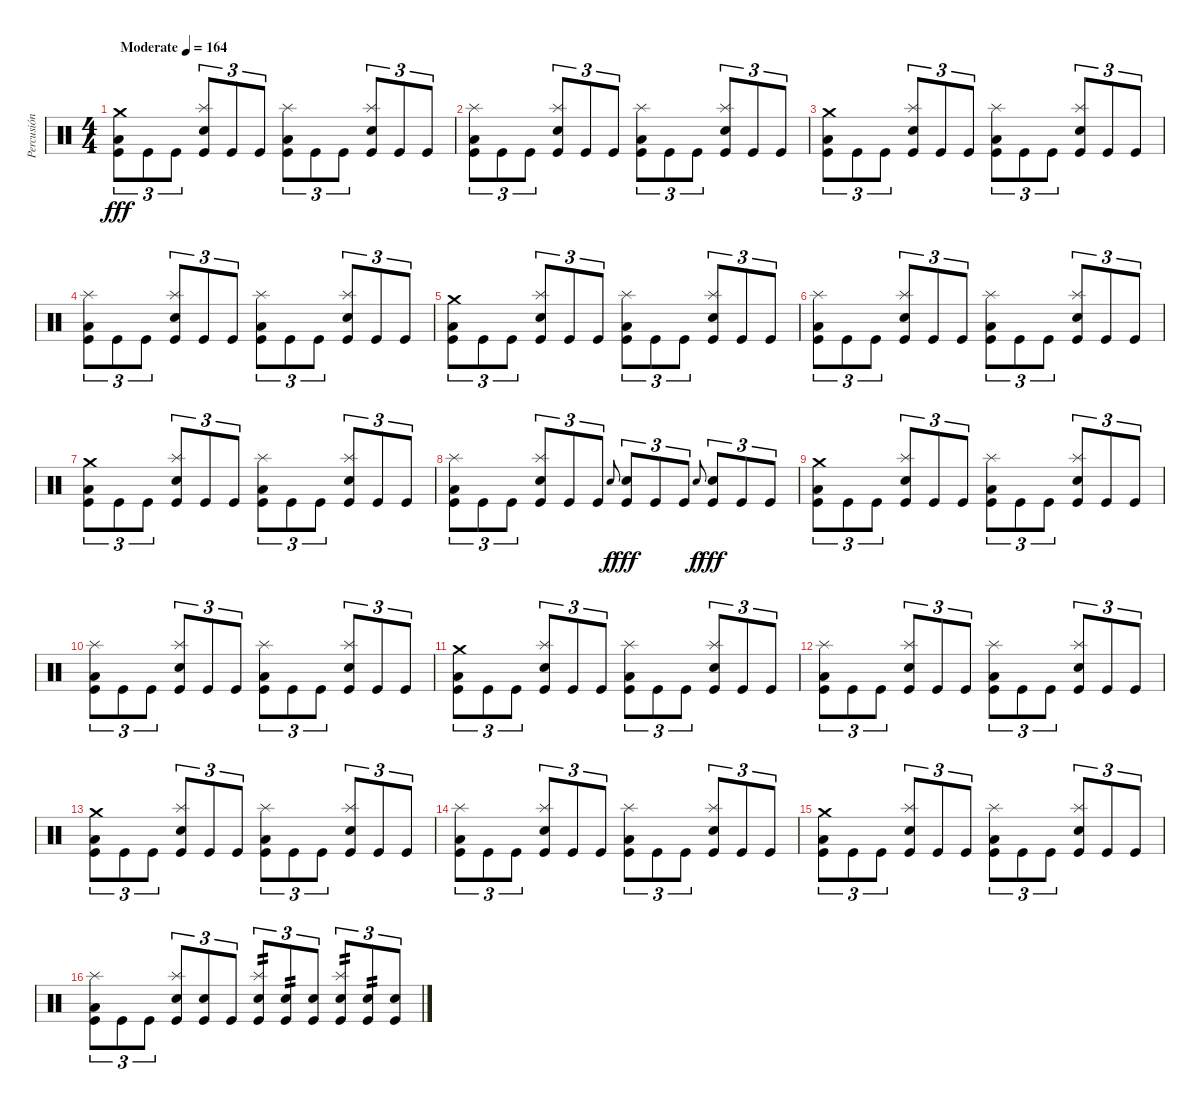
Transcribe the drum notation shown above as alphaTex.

\track ("Percusión" "Percusión") {instrument percussion}
\staff {score}
\articulation defaults
\ts (4 4)
\tempo (164 "Moderate")
\clef neutral
\ks c
("Crash medium (hit)" "Low Floor Tom (hit)" "Kick (hit)").8{tu (3 2) dy fff} "Kick (hit)".8{tu (3 2)} "Kick (hit)".8{tu (3 2)} ("Splash (hit)" "Snare (hit) 2" "Kick (hit)").8{tu (3 2)} "Kick (hit)".8{tu (3 2)} "Kick (hit)".8{tu (3 2)} ("Splash (hit)" "Low Floor Tom (hit)" "Kick (hit)").8{tu (3 2)} "Kick (hit)".8{tu (3 2)} "Kick (hit)".8{tu (3 2)} ("Splash (hit)" "Snare (hit) 2" "Kick (hit)").8{tu (3 2)} "Kick (hit)".8{tu (3 2)} "Kick (hit)".8{tu (3 2)} |
("Splash (hit)" "Low Floor Tom (hit)" "Kick (hit)").8{tu (3 2)} "Kick (hit)".8{tu (3 2)} "Kick (hit)".8{tu (3 2)} ("Splash (hit)" "Snare (hit) 2" "Kick (hit)").8{tu (3 2)} "Kick (hit)".8{tu (3 2)} "Kick (hit)".8{tu (3 2)} ("Splash (hit)" "Low Floor Tom (hit)" "Kick (hit)").8{tu (3 2)} "Kick (hit)".8{tu (3 2)} "Kick (hit)".8{tu (3 2)} ("Splash (hit)" "Snare (hit) 2" "Kick (hit)").8{tu (3 2)} "Kick (hit)".8{tu (3 2)} "Kick (hit)".8{tu (3 2)} |
("Crash medium (hit)" "Low Floor Tom (hit)" "Kick (hit)").8{tu (3 2)} "Kick (hit)".8{tu (3 2)} "Kick (hit)".8{tu (3 2)} ("Splash (hit)" "Snare (hit) 2" "Kick (hit)").8{tu (3 2)} "Kick (hit)".8{tu (3 2)} "Kick (hit)".8{tu (3 2)} ("Splash (hit)" "Low Floor Tom (hit)" "Kick (hit)").8{tu (3 2)} "Kick (hit)".8{tu (3 2)} "Kick (hit)".8{tu (3 2)} ("Splash (hit)" "Snare (hit) 2" "Kick (hit)").8{tu (3 2)} "Kick (hit)".8{tu (3 2)} "Kick (hit)".8{tu (3 2)} |
("Splash (hit)" "Low Floor Tom (hit)" "Kick (hit)").8{tu (3 2)} "Kick (hit)".8{tu (3 2)} "Kick (hit)".8{tu (3 2)} ("Splash (hit)" "Snare (hit) 2" "Kick (hit)").8{tu (3 2)} "Kick (hit)".8{tu (3 2)} "Kick (hit)".8{tu (3 2)} ("Splash (hit)" "Low Floor Tom (hit)" "Kick (hit)").8{tu (3 2)} "Kick (hit)".8{tu (3 2)} "Kick (hit)".8{tu (3 2)} ("Splash (hit)" "Snare (hit) 2" "Kick (hit)").8{tu (3 2)} "Kick (hit)".8{tu (3 2)} "Kick (hit)".8{tu (3 2)} |
("Crash medium (hit)" "Low Floor Tom (hit)" "Kick (hit)").8{tu (3 2)} "Kick (hit)".8{tu (3 2)} "Kick (hit)".8{tu (3 2)} ("Splash (hit)" "Snare (hit) 2" "Kick (hit)").8{tu (3 2)} "Kick (hit)".8{tu (3 2)} "Kick (hit)".8{tu (3 2)} ("Splash (hit)" "Low Floor Tom (hit)" "Kick (hit)").8{tu (3 2)} "Kick (hit)".8{tu (3 2)} "Kick (hit)".8{tu (3 2)} ("Splash (hit)" "Snare (hit) 2" "Kick (hit)").8{tu (3 2)} "Kick (hit)".8{tu (3 2)} "Kick (hit)".8{tu (3 2)} |
("Splash (hit)" "Low Floor Tom (hit)" "Kick (hit)").8{tu (3 2)} "Kick (hit)".8{tu (3 2)} "Kick (hit)".8{tu (3 2)} ("Splash (hit)" "Snare (hit) 2" "Kick (hit)").8{tu (3 2)} "Kick (hit)".8{tu (3 2)} "Kick (hit)".8{tu (3 2)} ("Splash (hit)" "Low Floor Tom (hit)" "Kick (hit)").8{tu (3 2)} "Kick (hit)".8{tu (3 2)} "Kick (hit)".8{tu (3 2)} ("Splash (hit)" "Snare (hit) 2" "Kick (hit)").8{tu (3 2)} "Kick (hit)".8{tu (3 2)} "Kick (hit)".8{tu (3 2)} |
("Crash medium (hit)" "Low Floor Tom (hit)" "Kick (hit)").8{tu (3 2)} "Kick (hit)".8{tu (3 2)} "Kick (hit)".8{tu (3 2)} ("Splash (hit)" "Snare (hit) 2" "Kick (hit)").8{tu (3 2)} "Kick (hit)".8{tu (3 2)} "Kick (hit)".8{tu (3 2)} ("Splash (hit)" "Low Floor Tom (hit)" "Kick (hit)").8{tu (3 2)} "Kick (hit)".8{tu (3 2)} "Kick (hit)".8{tu (3 2)} ("Splash (hit)" "Snare (hit) 2" "Kick (hit)").8{tu (3 2)} "Kick (hit)".8{tu (3 2)} "Kick (hit)".8{tu (3 2)} |
("Splash (hit)" "Low Floor Tom (hit)" "Kick (hit)").8{tu (3 2)} "Kick (hit)".8{tu (3 2)} "Kick (hit)".8{tu (3 2)} ("Splash (hit)" "Snare (hit) 2" "Kick (hit)").8{tu (3 2)} "Kick (hit)".8{tu (3 2)} "Kick (hit)".8{tu (3 2)} "Snare (hit) 2".8{gr onbeat dy f} ("Snare (hit) 2" "Kick (hit)").8{tu (3 2) dy fff} "Kick (hit)".8{tu (3 2)} "Kick (hit)".8{tu (3 2)} "Snare (hit) 2".8{gr onbeat dy f} ("Snare (hit) 2" "Kick (hit)").8{tu (3 2) dy fff} "Kick (hit)".8{tu (3 2)} "Kick (hit)".8{tu (3 2)} |
("Crash medium (hit)" "Low Floor Tom (hit)" "Kick (hit)").8{tu (3 2)} "Kick (hit)".8{tu (3 2)} "Kick (hit)".8{tu (3 2)} ("Splash (hit)" "Snare (hit) 2" "Kick (hit)").8{tu (3 2)} "Kick (hit)".8{tu (3 2)} "Kick (hit)".8{tu (3 2)} ("Splash (hit)" "Low Floor Tom (hit)" "Kick (hit)").8{tu (3 2)} "Kick (hit)".8{tu (3 2)} "Kick (hit)".8{tu (3 2)} ("Splash (hit)" "Snare (hit) 2" "Kick (hit)").8{tu (3 2)} "Kick (hit)".8{tu (3 2)} "Kick (hit)".8{tu (3 2)} |
("Splash (hit)" "Low Floor Tom (hit)" "Kick (hit)").8{tu (3 2)} "Kick (hit)".8{tu (3 2)} "Kick (hit)".8{tu (3 2)} ("Splash (hit)" "Snare (hit) 2" "Kick (hit)").8{tu (3 2)} "Kick (hit)".8{tu (3 2)} "Kick (hit)".8{tu (3 2)} ("Splash (hit)" "Low Floor Tom (hit)" "Kick (hit)").8{tu (3 2)} "Kick (hit)".8{tu (3 2)} "Kick (hit)".8{tu (3 2)} ("Splash (hit)" "Snare (hit) 2" "Kick (hit)").8{tu (3 2)} "Kick (hit)".8{tu (3 2)} "Kick (hit)".8{tu (3 2)} |
("Crash medium (hit)" "Low Floor Tom (hit)" "Kick (hit)").8{tu (3 2)} "Kick (hit)".8{tu (3 2)} "Kick (hit)".8{tu (3 2)} ("Splash (hit)" "Snare (hit) 2" "Kick (hit)").8{tu (3 2)} "Kick (hit)".8{tu (3 2)} "Kick (hit)".8{tu (3 2)} ("Splash (hit)" "Low Floor Tom (hit)" "Kick (hit)").8{tu (3 2)} "Kick (hit)".8{tu (3 2)} "Kick (hit)".8{tu (3 2)} ("Splash (hit)" "Snare (hit) 2" "Kick (hit)").8{tu (3 2)} "Kick (hit)".8{tu (3 2)} "Kick (hit)".8{tu (3 2)} |
("Splash (hit)" "Low Floor Tom (hit)" "Kick (hit)").8{tu (3 2)} "Kick (hit)".8{tu (3 2)} "Kick (hit)".8{tu (3 2)} ("Splash (hit)" "Snare (hit) 2" "Kick (hit)").8{tu (3 2)} "Kick (hit)".8{tu (3 2)} "Kick (hit)".8{tu (3 2)} ("Splash (hit)" "Low Floor Tom (hit)" "Kick (hit)").8{tu (3 2)} "Kick (hit)".8{tu (3 2)} "Kick (hit)".8{tu (3 2)} ("Splash (hit)" "Snare (hit) 2" "Kick (hit)").8{tu (3 2)} "Kick (hit)".8{tu (3 2)} "Kick (hit)".8{tu (3 2)} |
("Crash medium (hit)" "Low Floor Tom (hit)" "Kick (hit)").8{tu (3 2)} "Kick (hit)".8{tu (3 2)} "Kick (hit)".8{tu (3 2)} ("Splash (hit)" "Snare (hit) 2" "Kick (hit)").8{tu (3 2)} "Kick (hit)".8{tu (3 2)} "Kick (hit)".8{tu (3 2)} ("Splash (hit)" "Low Floor Tom (hit)" "Kick (hit)").8{tu (3 2)} "Kick (hit)".8{tu (3 2)} "Kick (hit)".8{tu (3 2)} ("Splash (hit)" "Snare (hit) 2" "Kick (hit)").8{tu (3 2)} "Kick (hit)".8{tu (3 2)} "Kick (hit)".8{tu (3 2)} |
("Splash (hit)" "Low Floor Tom (hit)" "Kick (hit)").8{tu (3 2)} "Kick (hit)".8{tu (3 2)} "Kick (hit)".8{tu (3 2)} ("Splash (hit)" "Snare (hit) 2" "Kick (hit)").8{tu (3 2)} "Kick (hit)".8{tu (3 2)} "Kick (hit)".8{tu (3 2)} ("Splash (hit)" "Low Floor Tom (hit)" "Kick (hit)").8{tu (3 2)} "Kick (hit)".8{tu (3 2)} "Kick (hit)".8{tu (3 2)} ("Splash (hit)" "Snare (hit) 2" "Kick (hit)").8{tu (3 2)} "Kick (hit)".8{tu (3 2)} "Kick (hit)".8{tu (3 2)} |
("Crash medium (hit)" "Low Floor Tom (hit)" "Kick (hit)").8{tu (3 2)} "Kick (hit)".8{tu (3 2)} "Kick (hit)".8{tu (3 2)} ("Splash (hit)" "Snare (hit) 2" "Kick (hit)").8{tu (3 2)} "Kick (hit)".8{tu (3 2)} "Kick (hit)".8{tu (3 2)} ("Splash (hit)" "Low Floor Tom (hit)" "Kick (hit)").8{tu (3 2)} "Kick (hit)".8{tu (3 2)} "Kick (hit)".8{tu (3 2)} ("Splash (hit)" "Snare (hit) 2" "Kick (hit)").8{tu (3 2)} "Kick (hit)".8{tu (3 2)} "Kick (hit)".8{tu (3 2)} |
("Splash (hit)" "Low Floor Tom (hit)" "Kick (hit)").8{tu (3 2)} "Kick (hit)".8{tu (3 2)} "Kick (hit)".8{tu (3 2)} ("Splash (hit)" "Snare (hit) 2" "Kick (hit)").8{tu (3 2)} ("Snare (hit) 2" "Kick (hit)").8{tu (3 2)} "Kick (hit)".8{tu (3 2)} ("Splash (hit)" "Snare (hit) 2" "Kick (hit)").8{tu (3 2) tp 2} ("Snare (hit) 2" "Kick (hit)").8{tu (3 2) tp 2} ("Snare (hit) 2" "Kick (hit)").8{tu (3 2)} ("Splash (hit)" "Snare (hit) 2" "Kick (hit)").8{tu (3 2) tp 2} ("Snare (hit) 2" "Kick (hit)").8{tu (3 2) tp 2} ("Snare (hit) 2" "Kick (hit)").8{tu (3 2)}
